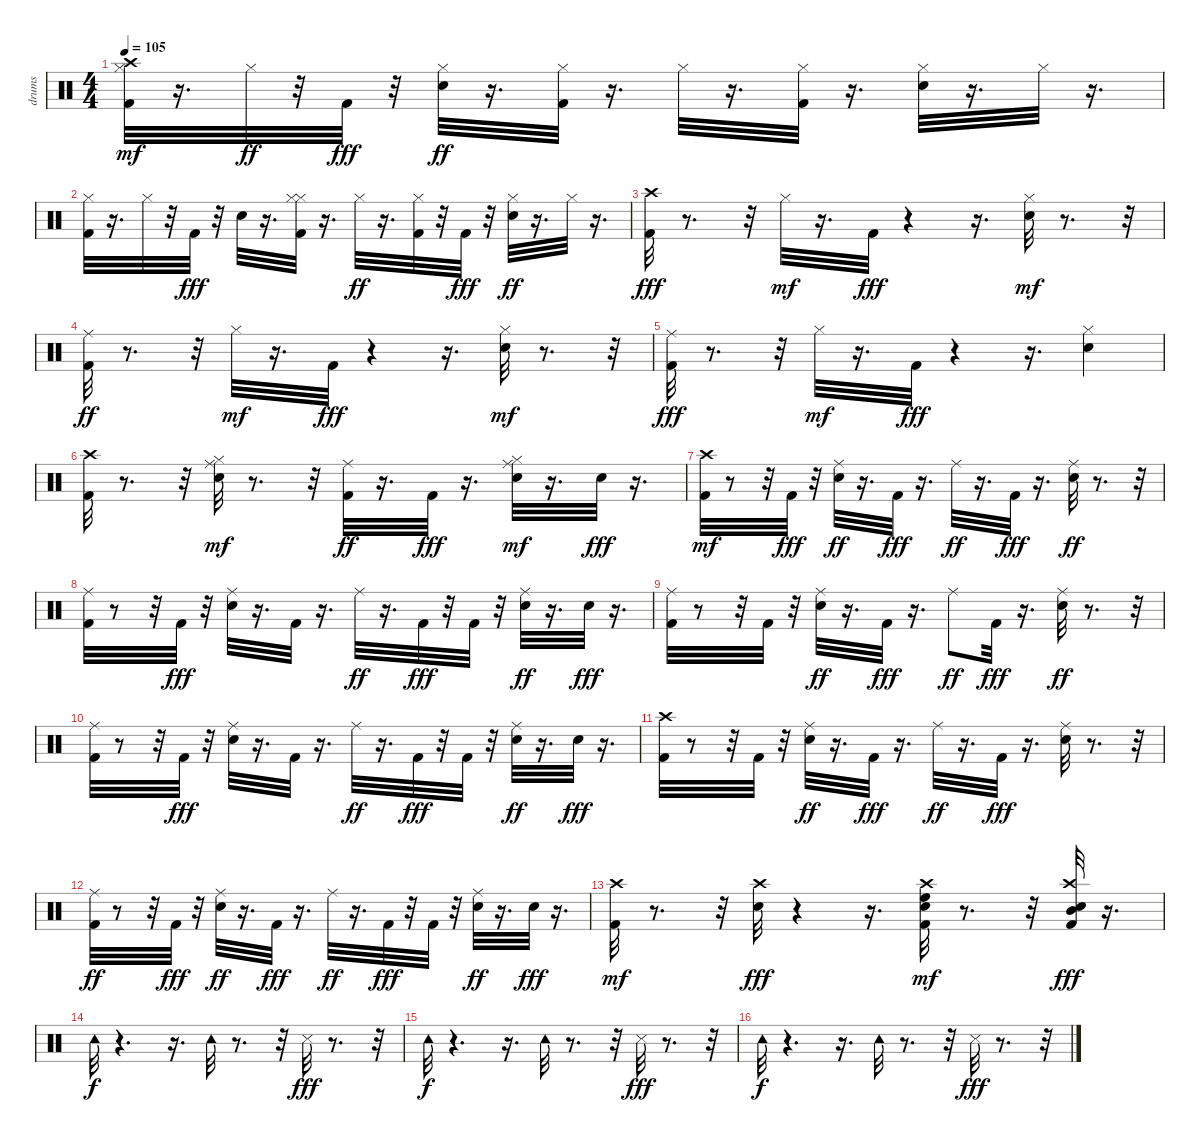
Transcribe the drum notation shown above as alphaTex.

\track ("drums" "drums") {instrument percussion}
\staff {score}
\articulation defaults
\ts (4 4)
\tempo 105
\clef neutral
\ks c
("Kick (hit) 2" "Hi-Hat (closed)" "Crash high (hit)").32{dy mf} r.16{d} "Hi-Hat (closed)".32{dy ff} r.32 "Kick (hit) 2".32{dy fff} r.32 ("Electric Snare (hit)" "Hi-Hat (closed)").32{dy ff} r.16{d} ("Kick (hit) 2" "Hi-Hat (closed)").32 r.16{d} "Hi-Hat (closed)".32 r.16{d} ("Kick (hit) 2" "Hi-Hat (closed)").32 r.16{d} ("Electric Snare (hit)" "Hi-Hat (closed)").32 r.16{d} "Hi-Hat (closed)".32 r.16{d} |
("Kick (hit) 2" "Hi-Hat (closed)").32 r.16{d} "Hi-Hat (closed)".32 r.32 "Kick (hit) 2".32{dy fff} r.32 "Electric Snare (hit)".32 r.16{d} ("Hi-Hat (closed)" "Hi-Hat (closed)" "Kick (hit) 2").32 r.16{d} "Hi-Hat (closed)".32{dy ff} r.16{d} ("Kick (hit) 2" "Hi-Hat (closed)").32 r.32 "Kick (hit) 2".32{dy fff} r.32 ("Electric Snare (hit)" "Hi-Hat (closed)").32{dy ff} r.16{d} "Hi-Hat (closed)".32 r.16{d} |
("Crash high (hit)" "Kick (hit) 2").32{dy fff} r.8{d} r.32 "Hi-Hat (closed)".32{dy mf} r.16{d} "Kick (hit) 2".32{dy fff} r.4 r.16{d} ("Electric Snare (hit)" "Hi-Hat (closed)").32{dy mf} r.8{d} r.32 |
("Kick (hit) 2" "Ride (middle)").32{dy ff} r.8{d} r.32 "Hi-Hat (closed)".32{dy mf} r.16{d} "Kick (hit) 2".32{dy fff} r.4 r.16{d} ("Electric Snare (hit)" "Hi-Hat (closed)").32{dy mf} r.8{d} r.32 |
("Ride (middle)" "Kick (hit) 2").32{dy fff} r.8{d} r.32 "Hi-Hat (closed)".32{dy mf} r.16{d} "Kick (hit) 2".32{dy fff} r.4 r.16{d} ("Hi-Hat (closed)" "Electric Snare (hit)").4 |
("Crash high (hit)" "Kick (hit) 2").32 r.8{d} r.32 ("Electric Snare (hit)" "Ride (middle)" "Hi-Hat (closed)").32{dy mf} r.8{d} r.32 ("Kick (hit) 2" "Ride (middle)").32{dy ff} r.16{d} "Kick (hit) 2".32{dy fff} r.16{d} ("Electric Snare (hit)" "Ride (middle)" "Hi-Hat (closed)").32{dy mf} r.16{d} "Electric Snare (hit)".32{dy fff} r.16{d} |
("Kick (hit) 2" "Crash high (hit)").32{dy mf} r.8 r.32 "Kick (hit) 2".32{dy fff} r.32 ("Electric Snare (hit)" "Ride (middle)").32{dy ff} r.16{d} "Kick (hit) 2".32{dy fff} r.16{d} "Ride (middle)".32{dy ff} r.16{d} "Kick (hit) 2".32{dy fff} r.16{d} ("Electric Snare (hit)" "Ride (middle)").32{dy ff} r.8{d} r.32 |
("Kick (hit) 2" "Ride (middle)").32 r.8 r.32 "Kick (hit) 2".32{dy fff} r.32 ("Ride (middle)" "Electric Snare (hit)").32 r.16{d} "Kick (hit) 2".32 r.16{d} "Ride (middle)".32{dy ff} r.16{d} "Kick (hit) 2".32{dy fff} r.32 "Kick (hit) 2".32 r.32 ("Electric Snare (hit)" "Ride (middle)").32{dy ff} r.16{d} "Electric Snare (hit)".32{dy fff} r.16{d} |
("Ride (middle)" "Kick (hit) 2").32 r.8 r.32 "Kick (hit) 2".32 r.32 ("Electric Snare (hit)" "Ride (middle)").32{dy ff} r.16{d} "Kick (hit) 2".32{dy fff} r.16{d} "Ride (middle)".8{dy ff} "Kick (hit) 2".32{dy fff} r.16{d} ("Electric Snare (hit)" "Ride (middle)").32{dy ff} r.8{d} r.32 |
("Kick (hit) 2" "Ride (middle)").32 r.8 r.32 "Kick (hit) 2".32{dy fff} r.32 ("Ride (middle)" "Electric Snare (hit)").32 r.16{d} "Kick (hit) 2".32 r.16{d} "Ride (middle)".32{dy ff} r.16{d} "Kick (hit) 2".32{dy fff} r.32 "Kick (hit) 2".32 r.32 ("Electric Snare (hit)" "Ride (middle)").32{dy ff} r.16{d} "Electric Snare (hit)".32{dy fff} r.16{d} |
("Crash high (hit)" "Kick (hit) 2").32 r.8 r.32 "Kick (hit) 2".32 r.32 ("Electric Snare (hit)" "Ride (middle)").32{dy ff} r.16{d} "Kick (hit) 2".32{dy fff} r.16{d} "Ride (middle)".32{dy ff} r.16{d} "Kick (hit) 2".32{dy fff} r.16{d} ("Ride (middle)" "Electric Snare (hit)").32 r.8{d} r.32 |
("Kick (hit) 2" "Ride (middle)").32{dy ff} r.8 r.32 "Kick (hit) 2".32{dy fff} r.32 ("Electric Snare (hit)" "Ride (middle)").32{dy ff} r.16{d} "Kick (hit) 2".32{dy fff} r.16{d} "Ride (middle)".32{dy ff} r.16{d} "Kick (hit) 2".32{dy fff} r.32 "Kick (hit) 2".32 r.32 ("Electric Snare (hit)" "Ride (middle)").32{dy ff} r.16{d} "Electric Snare (hit)".32{dy fff} r.16{d} |
("Kick (hit) 2" "Crash high (hit)").32{dy mf} r.8{d} r.32 ("Crash high (hit)" "Electric Snare (hit)").32{dy fff} r.4 r.16{d} ("Electric Snare (hit)" "Kick (hit) 2" "High Floor Tom (hit)" "Crash high (hit)").32{dy mf} r.8{d} r.32 ("Mid Tom (hit)" "Electric Snare (hit)" "Crash high (hit)" "Kick (hit) 2").32{dy fff} r.16{d} |
"Tambourine (hit)".32{dy f} r.4{d} r.16{d} "Tambourine (hit)".32 r.8{d} r.32 "Snare (side stick) 3".32{dy fff} r.8{d} r.32 |
"Tambourine (hit)".32{dy f} r.4{d} r.16{d} "Tambourine (hit)".32 r.8{d} r.32 "Snare (side stick) 3".32{dy fff} r.8{d} r.32 |
"Tambourine (hit)".32{dy f} r.4{d} r.16{d} "Tambourine (hit)".32 r.8{d} r.32 "Snare (side stick) 3".32{dy fff} r.8{d} r.32
